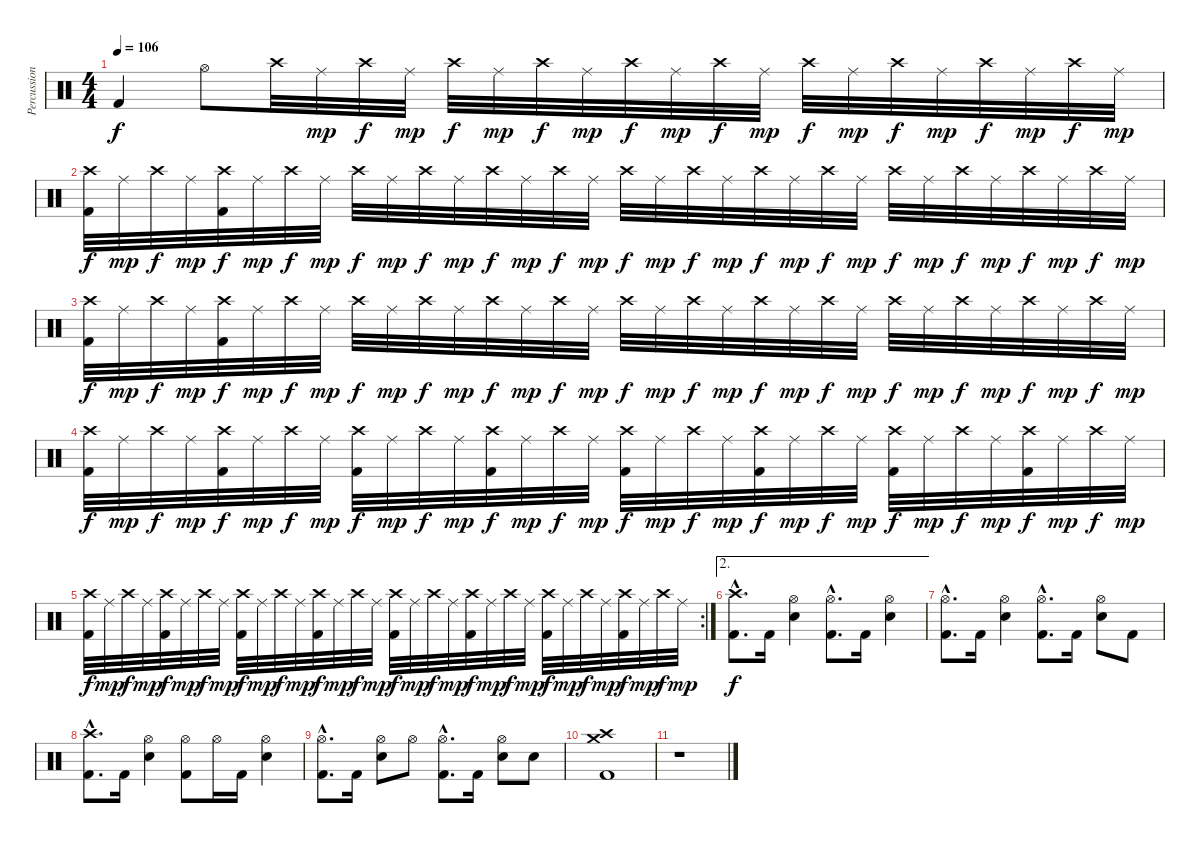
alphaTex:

\track ("Percussion" "Percussion") {instrument percussion}
\staff {score}
\articulation defaults
\ts (4 4)
\tempo 106
\clef neutral
\ks c "Kick (hit) 2".4{dy f} "Hi-Hat (open)".8 "Crash high (hit)".32 "Ride (middle)".32{dy mp} "Crash high (hit)".32{dy f} "Ride (middle)".32{dy mp} "Crash high (hit)".32{dy f} "Ride (middle)".32{dy mp} "Crash high (hit)".32{dy f} "Ride (middle)".32{dy mp} "Crash high (hit)".32{dy f} "Ride (middle)".32{dy mp} "Crash high (hit)".32{dy f} "Ride (middle)".32{dy mp} "Crash high (hit)".32{dy f} "Ride (middle)".32{dy mp} "Crash high (hit)".32{dy f} "Ride (middle)".32{dy mp} "Crash high (hit)".32{dy f} "Ride (middle)".32{dy mp} "Crash high (hit)".32{dy f} "Ride (middle)".32{dy mp}
|
("Kick (hit) 2" "Crash high (hit)").32{dy f} "Ride (middle)".32{dy mp} "Crash high (hit)".32{dy f} "Ride (middle)".32{dy mp} ("Kick (hit) 2" "Crash high (hit)").32{dy f} "Ride (middle)".32{dy mp} "Crash high (hit)".32{dy f} "Ride (middle)".32{dy mp} "Crash high (hit)".32{dy f} "Ride (middle)".32{dy mp} "Crash high (hit)".32{dy f} "Ride (middle)".32{dy mp} "Crash high (hit)".32{dy f} "Ride (middle)".32{dy mp} "Crash high (hit)".32{dy f} "Ride (middle)".32{dy mp} "Crash high (hit)".32{dy f} "Ride (middle)".32{dy mp} "Crash high (hit)".32{dy f} "Ride (middle)".32{dy mp} "Crash high (hit)".32{dy f} "Ride (middle)".32{dy mp} "Crash high (hit)".32{dy f} "Ride (middle)".32{dy mp} "Crash high (hit)".32{dy f} "Ride (middle)".32{dy mp} "Crash high (hit)".32{dy f} "Ride (middle)".32{dy mp} "Crash high (hit)".32{dy f} "Ride (middle)".32{dy mp} "Crash high (hit)".32{dy f} "Ride (middle)".32{dy mp} |
("Kick (hit) 2" "Crash high (hit)").32{dy f} "Ride (middle)".32{dy mp} "Crash high (hit)".32{dy f} "Ride (middle)".32{dy mp} ("Kick (hit) 2" "Crash high (hit)").32{dy f} "Ride (middle)".32{dy mp} "Crash high (hit)".32{dy f} "Ride (middle)".32{dy mp} "Crash high (hit)".32{dy f} "Ride (middle)".32{dy mp} "Crash high (hit)".32{dy f} "Ride (middle)".32{dy mp} "Crash high (hit)".32{dy f} "Ride (middle)".32{dy mp} "Crash high (hit)".32{dy f} "Ride (middle)".32{dy mp} "Crash high (hit)".32{dy f} "Ride (middle)".32{dy mp} "Crash high (hit)".32{dy f} "Ride (middle)".32{dy mp} "Crash high (hit)".32{dy f} "Ride (middle)".32{dy mp} "Crash high (hit)".32{dy f} "Ride (middle)".32{dy mp} "Crash high (hit)".32{dy f} "Ride (middle)".32{dy mp} "Crash high (hit)".32{dy f} "Ride (middle)".32{dy mp} "Crash high (hit)".32{dy f} "Ride (middle)".32{dy mp} "Crash high (hit)".32{dy f} "Ride (middle)".32{dy mp} |
("Kick (hit) 2" "Crash high (hit)").32{dy f} "Ride (middle)".32{dy mp} "Crash high (hit)".32{dy f} "Ride (middle)".32{dy mp} ("Kick (hit) 2" "Crash high (hit)").32{dy f} "Ride (middle)".32{dy mp} "Crash high (hit)".32{dy f} "Ride (middle)".32{dy mp} ("Kick (hit) 2" "Crash high (hit)").32{dy f} "Ride (middle)".32{dy mp} "Crash high (hit)".32{dy f} "Ride (middle)".32{dy mp} ("Kick (hit) 2" "Crash high (hit)").32{dy f} "Ride (middle)".32{dy mp} "Crash high (hit)".32{dy f} "Ride (middle)".32{dy mp} ("Kick (hit) 2" "Crash high (hit)").32{dy f} "Ride (middle)".32{dy mp} "Crash high (hit)".32{dy f} "Ride (middle)".32{dy mp} ("Kick (hit) 2" "Crash high (hit)").32{dy f} "Ride (middle)".32{dy mp} "Crash high (hit)".32{dy f} "Ride (middle)".32{dy mp} ("Kick (hit) 2" "Crash high (hit)").32{dy f} "Ride (middle)".32{dy mp} "Crash high (hit)".32{dy f} "Ride (middle)".32{dy mp} ("Kick (hit) 2" "Crash high (hit)").32{dy f} "Ride (middle)".32{dy mp} "Crash high (hit)".32{dy f} "Ride (middle)".32{dy mp} |
\rc 2
("Kick (hit) 2" "Crash high (hit)").32{dy f} "Ride (middle)".32{dy mp} "Crash high (hit)".32{dy f} "Ride (middle)".32{dy mp} ("Kick (hit) 2" "Crash high (hit)").32{dy f} "Ride (middle)".32{dy mp} "Crash high (hit)".32{dy f} "Ride (middle)".32{dy mp} ("Kick (hit) 2" "Crash high (hit)").32{dy f} "Ride (middle)".32{dy mp} "Crash high (hit)".32{dy f} "Ride (middle)".32{dy mp} ("Kick (hit) 2" "Crash high (hit)").32{dy f} "Ride (middle)".32{dy mp} "Crash high (hit)".32{dy f} "Ride (middle)".32{dy mp} ("Kick (hit) 2" "Crash high (hit)").32{dy f} "Ride (middle)".32{dy mp} "Crash high (hit)".32{dy f} "Ride (middle)".32{dy mp} ("Kick (hit) 2" "Crash high (hit)").32{dy f} "Ride (middle)".32{dy mp} "Crash high (hit)".32{dy f} "Ride (middle)".32{dy mp} ("Kick (hit) 2" "Crash high (hit)").32{dy f} "Ride (middle)".32{dy mp} "Crash high (hit)".32{dy f} "Ride (middle)".32{dy mp} ("Kick (hit) 2" "Crash high (hit)").32{dy f} "Ride (middle)".32{dy mp} "Crash high (hit)".32{dy f} "Ride (middle)".32{dy mp} |
\ae 2
("Kick (hit) 2"{hac} "Crash high (hit)"{hac}).8{d dy f} "Kick (hit) 2".16 ("Snare (hit) 2" "Hi-Hat (open)").4 ("Kick (hit) 2"{hac} "Hi-Hat (open)"{hac}).8{d} "Kick (hit) 2".16 ("Snare (hit) 2" "Hi-Hat (open)").4 |
("Kick (hit) 2"{hac} "Hi-Hat (open)"{hac}).8{d} "Kick (hit) 2".16 ("Snare (hit) 2" "Hi-Hat (open)").4 ("Kick (hit) 2"{hac} "Hi-Hat (open)"{hac}).8{d} "Kick (hit) 2".16 ("Snare (hit) 2" "Hi-Hat (open)").8 "Kick (hit) 2".8 |
("Kick (hit) 2"{hac} "Crash high (hit)"{hac}).8{d} "Kick (hit) 2".16 ("Snare (hit) 2" "Hi-Hat (open)").4 ("Kick (hit) 2" "Hi-Hat (open)").8 "Hi-Hat (open)".16 "Kick (hit) 2".16 ("Snare (hit) 2" "Hi-Hat (open)").4 |
("Kick (hit) 2"{hac} "Hi-Hat (open)"{hac}).8{d} "Kick (hit) 2".16 ("Snare (hit) 2" "Hi-Hat (open)").8 "Hi-Hat (open)".8 ("Kick (hit) 2"{hac} "Hi-Hat (open)"{hac}).8{d} "Kick (hit) 2".16 ("Snare (hit) 2" "Hi-Hat (open)").8 "Snare (hit) 2".8 |
("Kick (hit) 2" "Crash high (hit)" "Crash medium (hit)").1 |
r.1
